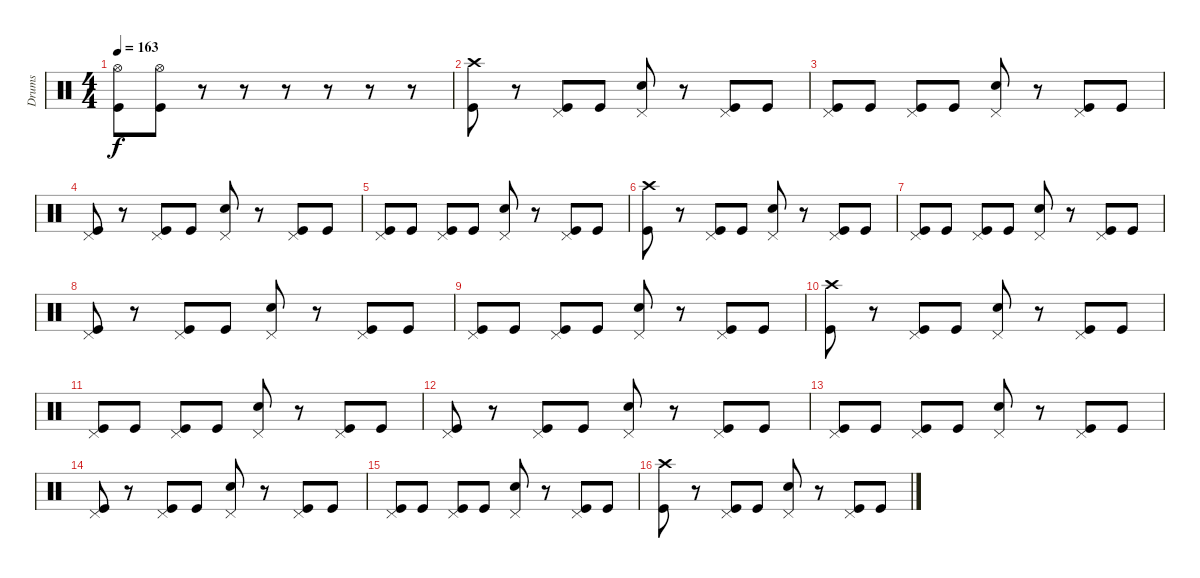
\track ("Drums" "Drums") {instrument percussion}
\staff {score}
\articulation defaults
\ts (4 4)
\tempo 163
\clef neutral
\ks c
("Hi-Hat (open)" "Kick (hit)").8{dy f} ("Hi-Hat (open)" "Kick (hit)").8 r.8 r.8 r.8 r.8 r.8 r.8 |
("Crash high (hit)" "Kick (hit)").8 r.8 ("Pedal Hi-Hat (hit)" "Kick (hit)").8 "Kick (hit)".8 ("Pedal Hi-Hat (hit)" "Snare (hit) 2").8 r.8 ("Pedal Hi-Hat (hit)" "Kick (hit)").8 "Kick (hit)".8 |
("Pedal Hi-Hat (hit)" "Kick (hit)").8 "Kick (hit)".8 ("Pedal Hi-Hat (hit)" "Kick (hit)").8 "Kick (hit)".8 ("Pedal Hi-Hat (hit)" "Snare (hit) 2").8 r.8 ("Pedal Hi-Hat (hit)" "Kick (hit)").8 "Kick (hit)".8 |
("Pedal Hi-Hat (hit)" "Kick (hit)").8 r.8 ("Pedal Hi-Hat (hit)" "Kick (hit)").8 "Kick (hit)".8 ("Pedal Hi-Hat (hit)" "Snare (hit) 2").8 r.8 ("Pedal Hi-Hat (hit)" "Kick (hit)").8 "Kick (hit)".8 |
("Pedal Hi-Hat (hit)" "Kick (hit)").8 "Kick (hit)".8 ("Pedal Hi-Hat (hit)" "Kick (hit)").8 "Kick (hit)".8 ("Pedal Hi-Hat (hit)" "Snare (hit) 2").8 r.8 ("Pedal Hi-Hat (hit)" "Kick (hit)").8 "Kick (hit)".8 |
("Crash high (hit)" "Kick (hit)").8 r.8 ("Pedal Hi-Hat (hit)" "Kick (hit)").8 "Kick (hit)".8 ("Pedal Hi-Hat (hit)" "Snare (hit) 2").8 r.8 ("Pedal Hi-Hat (hit)" "Kick (hit)").8 "Kick (hit)".8 |
("Pedal Hi-Hat (hit)" "Kick (hit)").8 "Kick (hit)".8 ("Pedal Hi-Hat (hit)" "Kick (hit)").8 "Kick (hit)".8 ("Pedal Hi-Hat (hit)" "Snare (hit) 2").8 r.8 ("Pedal Hi-Hat (hit)" "Kick (hit)").8 "Kick (hit)".8 |
("Pedal Hi-Hat (hit)" "Kick (hit)").8 r.8 ("Pedal Hi-Hat (hit)" "Kick (hit)").8 "Kick (hit)".8 ("Pedal Hi-Hat (hit)" "Snare (hit) 2").8 r.8 ("Pedal Hi-Hat (hit)" "Kick (hit)").8 "Kick (hit)".8 |
("Pedal Hi-Hat (hit)" "Kick (hit)").8 "Kick (hit)".8 ("Pedal Hi-Hat (hit)" "Kick (hit)").8 "Kick (hit)".8 ("Pedal Hi-Hat (hit)" "Snare (hit) 2").8 r.8 ("Pedal Hi-Hat (hit)" "Kick (hit)").8 "Kick (hit)".8 |
("Crash high (hit)" "Kick (hit)").8 r.8 ("Pedal Hi-Hat (hit)" "Kick (hit)").8 "Kick (hit)".8 ("Pedal Hi-Hat (hit)" "Snare (hit) 2").8 r.8 ("Pedal Hi-Hat (hit)" "Kick (hit)").8 "Kick (hit)".8 |
("Pedal Hi-Hat (hit)" "Kick (hit)").8 "Kick (hit)".8 ("Pedal Hi-Hat (hit)" "Kick (hit)").8 "Kick (hit)".8 ("Pedal Hi-Hat (hit)" "Snare (hit) 2").8 r.8 ("Pedal Hi-Hat (hit)" "Kick (hit)").8 "Kick (hit)".8 |
("Pedal Hi-Hat (hit)" "Kick (hit)").8 r.8 ("Pedal Hi-Hat (hit)" "Kick (hit)").8 "Kick (hit)".8 ("Pedal Hi-Hat (hit)" "Snare (hit) 2").8 r.8 ("Pedal Hi-Hat (hit)" "Kick (hit)").8 "Kick (hit)".8 |
("Pedal Hi-Hat (hit)" "Kick (hit)").8 "Kick (hit)".8 ("Pedal Hi-Hat (hit)" "Kick (hit)").8 "Kick (hit)".8 ("Pedal Hi-Hat (hit)" "Snare (hit) 2").8 r.8 ("Pedal Hi-Hat (hit)" "Kick (hit)").8 "Kick (hit)".8 |
("Pedal Hi-Hat (hit)" "Kick (hit)").8 r.8 ("Pedal Hi-Hat (hit)" "Kick (hit)").8 "Kick (hit)".8 ("Pedal Hi-Hat (hit)" "Snare (hit) 2").8 r.8 ("Pedal Hi-Hat (hit)" "Kick (hit)").8 "Kick (hit)".8 |
("Pedal Hi-Hat (hit)" "Kick (hit)").8 "Kick (hit)".8 ("Pedal Hi-Hat (hit)" "Kick (hit)").8 "Kick (hit)".8 ("Pedal Hi-Hat (hit)" "Snare (hit) 2").8 r.8 ("Pedal Hi-Hat (hit)" "Kick (hit)").8 "Kick (hit)".8 |
("Crash high (hit)" "Kick (hit)").8 r.8 ("Pedal Hi-Hat (hit)" "Kick (hit)").8 "Kick (hit)".8 ("Pedal Hi-Hat (hit)" "Snare (hit) 2").8 r.8 ("Pedal Hi-Hat (hit)" "Kick (hit)").8 "Kick (hit)".8
